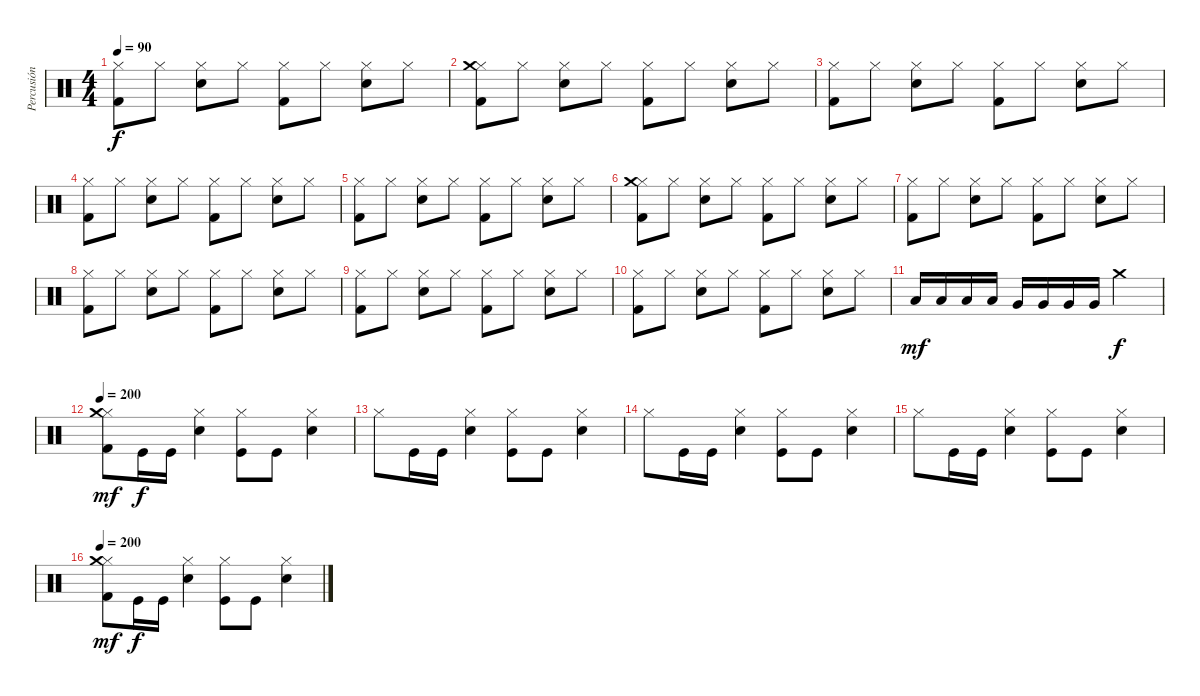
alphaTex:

\track ("Percusión" "Percusión") {instrument percussion}
\staff {score}
\articulation defaults
\ts (4 4)
\tempo 90
\clef neutral
\ks c
("Kick (hit) 2" "Hi-Hat (closed)").8{dy f} "Hi-Hat (closed)".8 ("Snare (hit) 2" "Hi-Hat (closed)").8 "Hi-Hat (closed)".8 ("Kick (hit) 2" "Hi-Hat (closed)").8 "Hi-Hat (closed)".8 ("Snare (hit) 2" "Hi-Hat (closed)").8 "Hi-Hat (closed)".8 |
("Kick (hit) 2" "Hi-Hat (closed)" "Crash medium (hit)").8 "Hi-Hat (closed)".8 ("Snare (hit) 2" "Hi-Hat (closed)").8 "Hi-Hat (closed)".8 ("Kick (hit) 2" "Hi-Hat (closed)").8 "Hi-Hat (closed)".8 ("Snare (hit) 2" "Hi-Hat (closed)").8 "Hi-Hat (closed)".8 |
("Kick (hit) 2" "Hi-Hat (closed)").8 "Hi-Hat (closed)".8 ("Snare (hit) 2" "Hi-Hat (closed)").8 "Hi-Hat (closed)".8 ("Kick (hit) 2" "Hi-Hat (closed)").8 "Hi-Hat (closed)".8 ("Snare (hit) 2" "Hi-Hat (closed)").8 "Hi-Hat (closed)".8 |
("Kick (hit) 2" "Hi-Hat (closed)").8 "Hi-Hat (closed)".8 ("Snare (hit) 2" "Hi-Hat (closed)").8 "Hi-Hat (closed)".8 ("Kick (hit) 2" "Hi-Hat (closed)").8 "Hi-Hat (closed)".8 ("Snare (hit) 2" "Hi-Hat (closed)").8 "Hi-Hat (closed)".8 |
("Kick (hit) 2" "Hi-Hat (closed)").8 "Hi-Hat (closed)".8 ("Snare (hit) 2" "Hi-Hat (closed)").8 "Hi-Hat (closed)".8 ("Kick (hit) 2" "Hi-Hat (closed)").8 "Hi-Hat (closed)".8 ("Snare (hit) 2" "Hi-Hat (closed)").8 "Hi-Hat (closed)".8 |
("Kick (hit) 2" "Hi-Hat (closed)" "Crash medium (hit)").8 "Hi-Hat (closed)".8 ("Snare (hit) 2" "Hi-Hat (closed)").8 "Hi-Hat (closed)".8 ("Kick (hit) 2" "Hi-Hat (closed)").8 "Hi-Hat (closed)".8 ("Snare (hit) 2" "Hi-Hat (closed)").8 "Hi-Hat (closed)".8 |
("Kick (hit) 2" "Hi-Hat (closed)").8 "Hi-Hat (closed)".8 ("Snare (hit) 2" "Hi-Hat (closed)").8 "Hi-Hat (closed)".8 ("Kick (hit) 2" "Hi-Hat (closed)").8 "Hi-Hat (closed)".8 ("Snare (hit) 2" "Hi-Hat (closed)").8 "Hi-Hat (closed)".8 |
("Kick (hit) 2" "Hi-Hat (closed)").8 "Hi-Hat (closed)".8 ("Snare (hit) 2" "Hi-Hat (closed)").8 "Hi-Hat (closed)".8 ("Kick (hit) 2" "Hi-Hat (closed)").8 "Hi-Hat (closed)".8 ("Snare (hit) 2" "Hi-Hat (closed)").8 "Hi-Hat (closed)".8 |
("Kick (hit) 2" "Hi-Hat (closed)").8 "Hi-Hat (closed)".8 ("Snare (hit) 2" "Hi-Hat (closed)").8 "Hi-Hat (closed)".8 ("Kick (hit) 2" "Hi-Hat (closed)").8 "Hi-Hat (closed)".8 ("Snare (hit) 2" "Hi-Hat (closed)").8 "Hi-Hat (closed)".8 |
("Kick (hit) 2" "Hi-Hat (closed)").8 "Hi-Hat (closed)".8 ("Snare (hit) 2" "Hi-Hat (closed)").8 "Hi-Hat (closed)".8 ("Kick (hit) 2" "Hi-Hat (closed)").8 "Hi-Hat (closed)".8 ("Snare (hit) 2" "Hi-Hat (closed)").8 "Hi-Hat (closed)".8 |
"Low Tom (hit)".16{dy mf} "Low Tom (hit)".16 "Low Tom (hit)".16 "Low Tom (hit)".16 "Very Low Tom (hit)".16 "Very Low Tom (hit)".16 "Very Low Tom (hit)".16 "Very Low Tom (hit)".16 "Crash medium (hit)".2{dy f} |
\tempo 200
("Hi-Hat (closed)" "Kick (hit) 2" "Crash medium (hit)").8{dy mf} "Kick (hit)".16{dy f} "Kick (hit)".16 ("Snare (hit) 2" "Hi-Hat (closed)").4 ("Kick (hit)" "Hi-Hat (closed)").8 "Kick (hit)".8 ("Snare (hit) 2" "Hi-Hat (closed)").4 |
"Hi-Hat (closed)".8 "Kick (hit)".16 "Kick (hit)".16 ("Snare (hit) 2" "Hi-Hat (closed)").4 ("Kick (hit)" "Hi-Hat (closed)").8 "Kick (hit)".8 ("Snare (hit) 2" "Hi-Hat (closed)").4 |
"Hi-Hat (closed)".8 "Kick (hit)".16 "Kick (hit)".16 ("Snare (hit) 2" "Hi-Hat (closed)").4 ("Kick (hit)" "Hi-Hat (closed)").8 "Kick (hit)".8 ("Snare (hit) 2" "Hi-Hat (closed)").4 |
"Hi-Hat (closed)".8 "Kick (hit)".16 "Kick (hit)".16 ("Snare (hit) 2" "Hi-Hat (closed)").4 ("Kick (hit)" "Hi-Hat (closed)").8 "Kick (hit)".8 ("Snare (hit) 2" "Hi-Hat (closed)").4 |
\tempo 200
("Hi-Hat (closed)" "Kick (hit) 2" "Crash medium (hit)").8{dy mf} "Kick (hit)".16{dy f} "Kick (hit)".16 ("Snare (hit) 2" "Hi-Hat (closed)").4 ("Kick (hit)" "Hi-Hat (closed)").8 "Kick (hit)".8 ("Snare (hit) 2" "Hi-Hat (closed)").4
